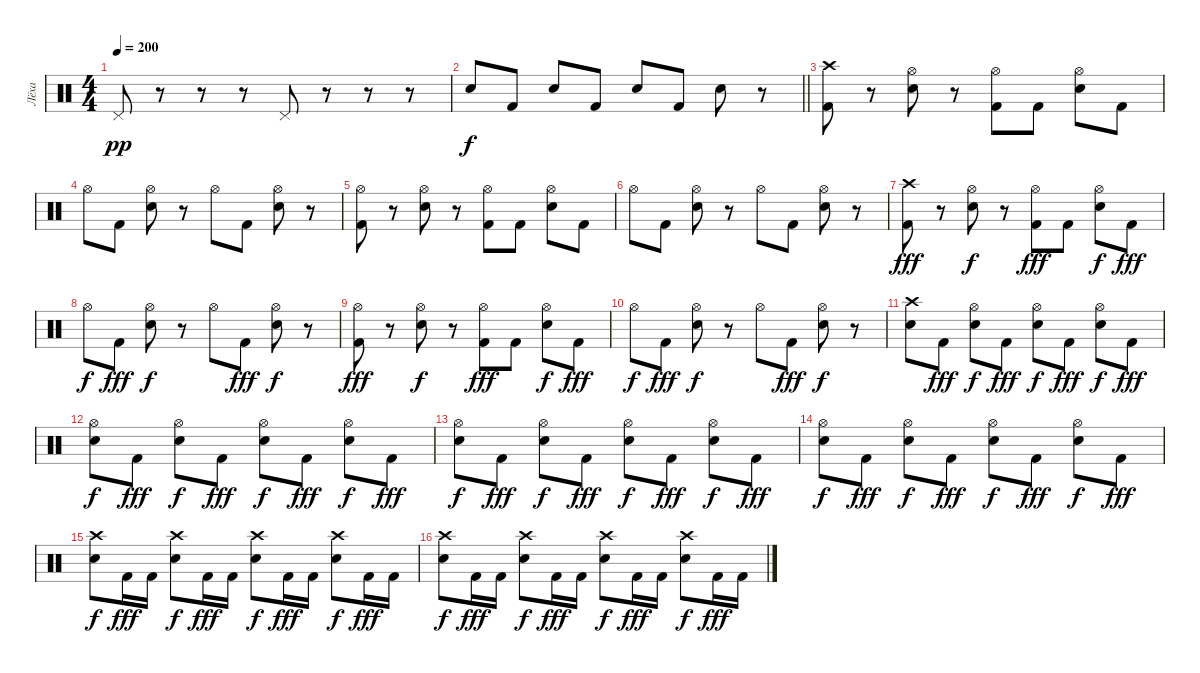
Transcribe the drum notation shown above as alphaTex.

\track ("Лёха" "Лёха") {instrument percussion}
\staff {score}
\articulation defaults
\ts (4 4)
\tempo 200
\clef neutral
\ks c "Pedal Hi-Hat (hit)".8{dy pp}
r.8 r.8 r.8 "Pedal Hi-Hat (hit)".8 r.8 r.8 r.8 |
\barLineRight lightlight "Electric Snare (hit)".8{dy f} "Kick (hit) 2".8 "Electric Snare (hit)".8 "Kick (hit) 2".8 "Electric Snare (hit)".8 "Kick (hit) 2".8 "Electric Snare (hit)".8
r.8 |
\section ("" "")
("Crash high (hit)" "Kick (hit) 2").8 r.8 ("Hi-Hat (open)" "Electric Snare (hit)").8 r.8 ("Hi-Hat (open)" "Kick (hit) 2").8 "Kick (hit) 2".8 ("Hi-Hat (open)" "Electric Snare (hit)").8 "Kick (hit) 2".8 |
"Hi-Hat (open)".8 "Kick (hit) 2".8 ("Hi-Hat (open)" "Electric Snare (hit)").8 r.8 "Hi-Hat (open)".8 "Kick (hit) 2".8 ("Hi-Hat (open)" "Electric Snare (hit)").8 r.8 |
("Hi-Hat (open)" "Kick (hit) 2").8 r.8 ("Hi-Hat (open)" "Electric Snare (hit)").8 r.8 ("Hi-Hat (open)" "Kick (hit) 2").8 "Kick (hit) 2".8 ("Hi-Hat (open)" "Electric Snare (hit)").8 "Kick (hit) 2".8 |
"Hi-Hat (open)".8 "Kick (hit) 2".8 ("Hi-Hat (open)" "Electric Snare (hit)").8 r.8 "Hi-Hat (open)".8 "Kick (hit) 2".8 ("Hi-Hat (open)" "Electric Snare (hit)").8 r.8 |
("Crash high (hit)" "Kick (hit) 2").8{dy fff} r.8 ("Hi-Hat (open)" "Electric Snare (hit)").8{dy f} r.8 ("Hi-Hat (open)" "Kick (hit) 2").8{dy fff} "Kick (hit) 2".8 ("Hi-Hat (open)" "Electric Snare (hit)").8{dy f} "Kick (hit) 2".8{dy fff} |
"Hi-Hat (open)".8{dy f} "Kick (hit) 2".8{dy fff} ("Hi-Hat (open)" "Electric Snare (hit)").8{dy f} r.8 "Hi-Hat (open)".8 "Kick (hit) 2".8{dy fff} ("Hi-Hat (open)" "Electric Snare (hit)").8{dy f} r.8 |
("Hi-Hat (open)" "Kick (hit) 2").8{dy fff} r.8 ("Hi-Hat (open)" "Electric Snare (hit)").8{dy f} r.8 ("Hi-Hat (open)" "Kick (hit) 2").8{dy fff} "Kick (hit) 2".8 ("Hi-Hat (open)" "Electric Snare (hit)").8{dy f} "Kick (hit) 2".8{dy fff} |
"Hi-Hat (open)".8{dy f} "Kick (hit) 2".8{dy fff} ("Hi-Hat (open)" "Electric Snare (hit)").8{dy f} r.8 "Hi-Hat (open)".8 "Kick (hit) 2".8{dy fff} ("Hi-Hat (open)" "Electric Snare (hit)").8{dy f} r.8 |
("Crash high (hit)" "Electric Snare (hit)").8 "Kick (hit) 2".8{dy fff} ("Hi-Hat (open)" "Electric Snare (hit)").8{dy f} "Kick (hit) 2".8{dy fff} ("Hi-Hat (open)" "Electric Snare (hit)").8{dy f} "Kick (hit) 2".8{dy fff} ("Hi-Hat (open)" "Electric Snare (hit)").8{dy f} "Kick (hit) 2".8{dy fff} |
("Hi-Hat (open)" "Electric Snare (hit)").8{dy f} "Kick (hit) 2".8{dy fff} ("Hi-Hat (open)" "Electric Snare (hit)").8{dy f} "Kick (hit) 2".8{dy fff} ("Hi-Hat (open)" "Electric Snare (hit)").8{dy f} "Kick (hit) 2".8{dy fff} ("Hi-Hat (open)" "Electric Snare (hit)").8{dy f} "Kick (hit) 2".8{dy fff} |
("Hi-Hat (open)" "Electric Snare (hit)").8{dy f} "Kick (hit) 2".8{dy fff} ("Hi-Hat (open)" "Electric Snare (hit)").8{dy f} "Kick (hit) 2".8{dy fff} ("Hi-Hat (open)" "Electric Snare (hit)").8{dy f} "Kick (hit) 2".8{dy fff} ("Hi-Hat (open)" "Electric Snare (hit)").8{dy f} "Kick (hit) 2".8{dy fff} |
("Hi-Hat (open)" "Electric Snare (hit)").8{dy f} "Kick (hit) 2".8{dy fff} ("Hi-Hat (open)" "Electric Snare (hit)").8{dy f} "Kick (hit) 2".8{dy fff} ("Hi-Hat (open)" "Electric Snare (hit)").8{dy f} "Kick (hit) 2".8{dy fff} ("Hi-Hat (open)" "Electric Snare (hit)").8{dy f} "Kick (hit) 2".8{dy fff} |
("Crash high (hit)" "Electric Snare (hit)").8{dy f} "Kick (hit) 2".16{dy fff} "Kick (hit) 2".16 ("Crash high (hit)" "Electric Snare (hit)").8{dy f} "Kick (hit) 2".16{dy fff} "Kick (hit) 2".16 ("Crash high (hit)" "Electric Snare (hit)").8{dy f} "Kick (hit) 2".16{dy fff} "Kick (hit) 2".16 ("Crash high (hit)" "Electric Snare (hit)").8{dy f} "Kick (hit) 2".16{dy fff} "Kick (hit) 2".16 |
("Crash high (hit)" "Electric Snare (hit)").8{dy f} "Kick (hit) 2".16{dy fff} "Kick (hit) 2".16 ("Crash high (hit)" "Electric Snare (hit)").8{dy f} "Kick (hit) 2".16{dy fff} "Kick (hit) 2".16 ("Crash high (hit)" "Electric Snare (hit)").8{dy f} "Kick (hit) 2".16{dy fff} "Kick (hit) 2".16 ("Crash high (hit)" "Electric Snare (hit)").8{dy f} "Kick (hit) 2".16{dy fff} "Kick (hit) 2".16
